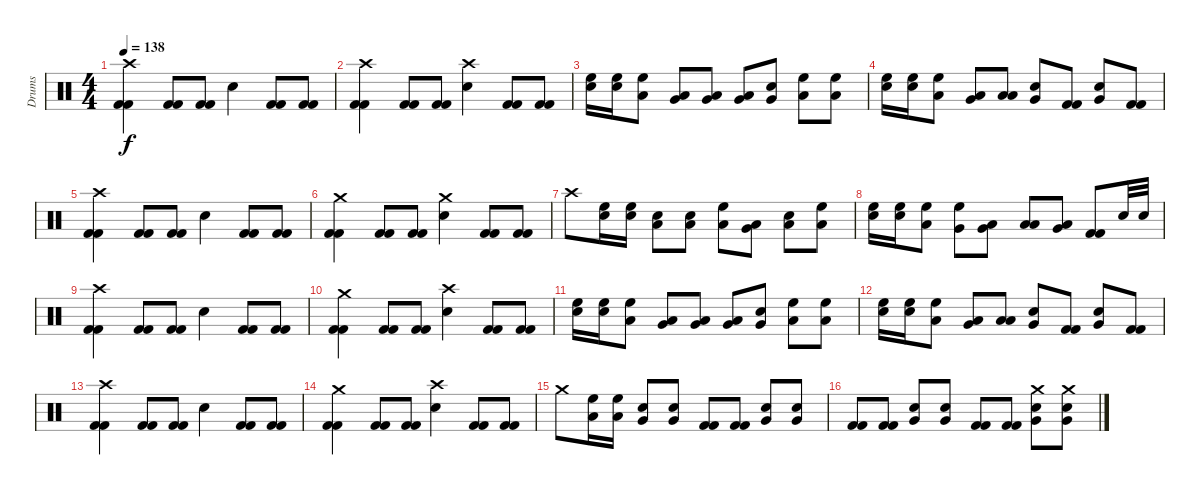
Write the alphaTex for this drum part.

\track ("Drums" "Drums") {instrument percussion}
\staff {score}
\articulation defaults
\ts (4 4)
\tempo 138
\clef neutral
\ks c
("Crash high (hit)" "Kick (hit) 2" "Kick (hit) 2").4{dy f} ("Kick (hit) 2" "Kick (hit) 2").8 ("Kick (hit) 2" "Kick (hit) 2").8 "Electric Snare (hit)".4 ("Kick (hit) 2" "Kick (hit) 2").8 ("Kick (hit) 2" "Kick (hit) 2").8 |
("Crash high (hit)" "Kick (hit) 2" "Kick (hit) 2").4 ("Kick (hit) 2" "Kick (hit) 2").8 ("Kick (hit) 2" "Kick (hit) 2").8 ("Crash high (hit)" "Electric Snare (hit)").4 ("Kick (hit) 2" "Kick (hit) 2").8 ("Kick (hit) 2" "Kick (hit) 2").8 |
("Electric Snare (hit)" "High Floor Tom (hit)").16 ("Electric Snare (hit)" "High Floor Tom (hit)").16 ("Low Tom (hit)" "High Floor Tom (hit)").8 ("Very Low Tom (hit)" "Low Tom (hit)").8 ("Low Tom (hit)" "Very Low Tom (hit)").8 ("Low Tom (hit)" "Very Low Tom (hit)").8 ("Electric Snare (hit)" "Very Low Tom (hit)").8 ("High Floor Tom (hit)" "Low Tom (hit)").8 ("Low Tom (hit)" "High Floor Tom (hit)").8 |
("Electric Snare (hit)" "High Floor Tom (hit)").16 ("Electric Snare (hit)" "High Floor Tom (hit)").16 ("Low Tom (hit)" "High Floor Tom (hit)").8 ("Low Tom (hit)" "Very Low Tom (hit)").8 ("Low Tom (hit)" "Low Floor Tom (hit)").8 ("Very Low Tom (hit)" "Electric Snare (hit)").8 ("Kick (hit) 2" "Kick (hit) 2").8 ("Very Low Tom (hit)" "Electric Snare (hit)").8 ("Kick (hit) 2" "Kick (hit) 2").8 |
("Crash high (hit)" "Kick (hit) 2" "Kick (hit) 2").4 ("Kick (hit) 2" "Kick (hit) 2").8 ("Kick (hit) 2" "Kick (hit) 2").8 "Electric Snare (hit)".4 ("Kick (hit) 2" "Kick (hit) 2").8 ("Kick (hit) 2" "Kick (hit) 2").8 |
("Crash medium (hit)" "Kick (hit) 2" "Kick (hit) 2").4 ("Kick (hit) 2" "Kick (hit) 2").8 ("Kick (hit) 2" "Kick (hit) 2").8 ("Crash medium (hit)" "Electric Snare (hit)").4 ("Kick (hit) 2" "Kick (hit) 2").8 ("Kick (hit) 2" "Kick (hit) 2").8 |
"Crash high (hit)".8 ("High Floor Tom (hit)" "Electric Snare (hit)").16 ("High Floor Tom (hit)" "Electric Snare (hit)").16 ("Electric Snare (hit)" "Low Tom (hit)").8 ("Electric Snare (hit)" "Low Tom (hit)").8 ("High Floor Tom (hit)" "Low Floor Tom (hit)").8 ("Low Tom (hit)" "Very Low Tom (hit)").8 ("Electric Snare (hit)" "Low Floor Tom (hit)").8 ("High Floor Tom (hit)" "Low Tom (hit)").8 |
("Electric Snare (hit)" "High Floor Tom (hit)").16 ("Electric Snare (hit)" "High Floor Tom (hit)").16 ("High Floor Tom (hit)" "Low Tom (hit)").8 ("Very Low Tom (hit)" "High Floor Tom (hit)").8 ("Very Low Tom (hit)" "Low Tom (hit)").8 ("Low Tom (hit)" "Low Floor Tom (hit)").8 ("Very Low Tom (hit)" "Low Floor Tom (hit)").8 ("Kick (hit) 2" "Kick (hit) 2").8 "Electric Snare (hit)".32 "Electric Snare (hit)".32 |
("Crash high (hit)" "Kick (hit) 2" "Kick (hit) 2").4 ("Kick (hit) 2" "Kick (hit) 2").8 ("Kick (hit) 2" "Kick (hit) 2").8 "Electric Snare (hit)".4 ("Kick (hit) 2" "Kick (hit) 2").8 ("Kick (hit) 2" "Kick (hit) 2").8 |
("Crash medium (hit)" "Kick (hit) 2" "Kick (hit) 2").4 ("Kick (hit) 2" "Kick (hit) 2").8 ("Kick (hit) 2" "Kick (hit) 2").8 ("Crash high (hit)" "Electric Snare (hit)").4 ("Kick (hit) 2" "Kick (hit) 2").8 ("Kick (hit) 2" "Kick (hit) 2").8 |
("Electric Snare (hit)" "High Floor Tom (hit)").16 ("Electric Snare (hit)" "High Floor Tom (hit)").16 ("Low Tom (hit)" "High Floor Tom (hit)").8 ("Very Low Tom (hit)" "Low Tom (hit)").8 ("Low Tom (hit)" "Very Low Tom (hit)").8 ("Low Tom (hit)" "Very Low Tom (hit)").8 ("Electric Snare (hit)" "Very Low Tom (hit)").8 ("High Floor Tom (hit)" "Low Tom (hit)").8 ("Low Tom (hit)" "High Floor Tom (hit)").8 |
("Electric Snare (hit)" "High Floor Tom (hit)").16 ("Electric Snare (hit)" "High Floor Tom (hit)").16 ("Low Tom (hit)" "High Floor Tom (hit)").8 ("Low Tom (hit)" "Very Low Tom (hit)").8 ("Low Tom (hit)" "Low Floor Tom (hit)").8 ("Very Low Tom (hit)" "Electric Snare (hit)").8 ("Kick (hit) 2" "Kick (hit) 2").8 ("Very Low Tom (hit)" "Electric Snare (hit)").8 ("Kick (hit) 2" "Kick (hit) 2").8 |
("Crash high (hit)" "Kick (hit) 2" "Kick (hit) 2").4 ("Kick (hit) 2" "Kick (hit) 2").8 ("Kick (hit) 2" "Kick (hit) 2").8 "Electric Snare (hit)".4 ("Kick (hit) 2" "Kick (hit) 2").8 ("Kick (hit) 2" "Kick (hit) 2").8 |
("Crash medium (hit)" "Kick (hit) 2" "Kick (hit) 2").4 ("Kick (hit) 2" "Kick (hit) 2").8 ("Kick (hit) 2" "Kick (hit) 2").8 ("Crash high (hit)" "Electric Snare (hit)").4 ("Kick (hit) 2" "Kick (hit) 2").8 ("Kick (hit) 2" "Kick (hit) 2").8 |
"Crash medium (hit)".8 ("Low Tom (hit)" "High Floor Tom (hit)").16 ("Low Tom (hit)" "High Floor Tom (hit)").16 ("Very Low Tom (hit)" "Electric Snare (hit)").8 ("Very Low Tom (hit)" "Electric Snare (hit)").8 ("Kick (hit) 2" "Kick (hit) 2").8 ("Kick (hit) 2" "Kick (hit) 2").8 ("Very Low Tom (hit)" "Electric Snare (hit)").8 ("Very Low Tom (hit)" "Electric Snare (hit)").8 |
("Kick (hit) 2" "Kick (hit) 2").8 ("Kick (hit) 2" "Kick (hit) 2").8 ("Electric Snare (hit)" "Very Low Tom (hit)").8 ("Electric Snare (hit)" "Very Low Tom (hit)").8 ("Kick (hit) 2" "Kick (hit) 2").8 ("Kick (hit) 2" "Kick (hit) 2").8 ("Crash medium (hit)" "Very Low Tom (hit)" "Electric Snare (hit)").8 ("Crash medium (hit)" "Very Low Tom (hit)" "Electric Snare (hit)").8
